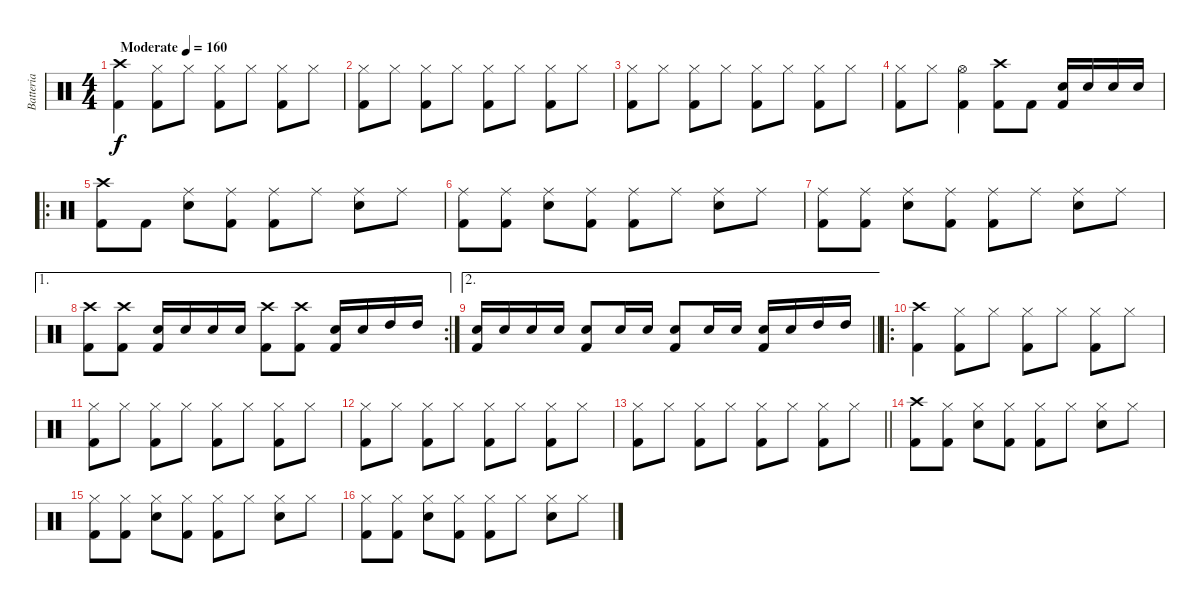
\track ("Batteria" "Batteria") {instrument percussion}
\staff {score}
\articulation defaults
\ts (4 4)
\tempo (160 "Moderate")
\clef neutral
\ks c
("Crash high (hit)" "Kick (hit) 2").4{dy f} ("Hi-Hat (closed)" "Kick (hit) 2").8 "Hi-Hat (closed)".8 ("Hi-Hat (closed)" "Kick (hit) 2").8 "Hi-Hat (closed)".8 ("Hi-Hat (closed)" "Kick (hit) 2").8 "Hi-Hat (closed)".8 |
("Hi-Hat (closed)" "Kick (hit) 2").8 "Hi-Hat (closed)".8 ("Hi-Hat (closed)" "Kick (hit) 2").8 "Hi-Hat (closed)".8 ("Hi-Hat (closed)" "Kick (hit) 2").8 "Hi-Hat (closed)".8 ("Hi-Hat (closed)" "Kick (hit) 2").8 "Hi-Hat (closed)".8 |
("Hi-Hat (closed)" "Kick (hit) 2").8 "Hi-Hat (closed)".8 ("Hi-Hat (closed)" "Kick (hit) 2").8 "Hi-Hat (closed)".8 ("Hi-Hat (closed)" "Kick (hit) 2").8 "Hi-Hat (closed)".8 ("Hi-Hat (closed)" "Kick (hit) 2").8 "Hi-Hat (closed)".8 |
("Hi-Hat (closed)" "Kick (hit) 2").8 "Hi-Hat (closed)".8 ("Hi-Hat (open)" "Kick (hit) 2").4 ("Crash high (hit)" "Kick (hit) 2").8 "Kick (hit) 2".8 ("Electric Snare (hit)" "Kick (hit) 2").16 "Electric Snare (hit)".16 "Electric Snare (hit)".16 "Electric Snare (hit)".16 |
\ro
("Crash high (hit)" "Kick (hit) 2").8 "Kick (hit) 2".8 ("Ride (middle)" "Electric Snare (hit)").8 ("Ride (middle)" "Kick (hit) 2").8 ("Ride (middle)" "Kick (hit) 2").8 "Ride (middle)".8 ("Ride (middle)" "Electric Snare (hit)").8 "Ride (middle)".8 |
("Ride (middle)" "Kick (hit) 2").8 ("Ride (middle)" "Kick (hit) 2").8 ("Ride (middle)" "Electric Snare (hit)").8 ("Ride (middle)" "Kick (hit) 2").8 ("Ride (middle)" "Kick (hit) 2").8 "Ride (middle)".8 ("Ride (middle)" "Electric Snare (hit)").8 "Ride (middle)".8 |
("Ride (middle)" "Kick (hit) 2").8 ("Ride (middle)" "Kick (hit) 2").8 ("Ride (middle)" "Electric Snare (hit)").8 ("Ride (middle)" "Kick (hit) 2").8 ("Ride (middle)" "Kick (hit) 2").8 "Ride (middle)".8 ("Ride (middle)" "Electric Snare (hit)").8 "Ride (middle)".8 |
\ae 1
\rc 2
("Crash high (hit)" "Kick (hit) 2").8 ("Crash high (hit)" "Kick (hit) 2").8 ("Electric Snare (hit)" "Kick (hit) 2").16 "Electric Snare (hit)".16 "Electric Snare (hit)".16 "Electric Snare (hit)".16 ("Crash high (hit)" "Kick (hit) 2").8 ("Crash high (hit)" "Kick (hit) 2").8 ("Electric Snare (hit)" "Kick (hit) 2").16 "Electric Snare (hit)".16 "High Tom (hit)".16 "High Tom (hit)".16 |
\ae 2
\barLineRight lightlight
("Electric Snare (hit)" "Kick (hit) 2").16 "Electric Snare (hit)".16 "Electric Snare (hit)".16 "Electric Snare (hit)".16 ("Electric Snare (hit)" "Kick (hit) 2").8 "Electric Snare (hit)".16 "Electric Snare (hit)".16 ("Electric Snare (hit)" "Kick (hit) 2").8 "Electric Snare (hit)".16 "Electric Snare (hit)".16 ("Electric Snare (hit)" "Kick (hit) 2").16 "Electric Snare (hit)".16 "High Tom (hit)".16 "High Tom (hit)".16 |
\ro
("Crash high (hit)" "Kick (hit) 2").4 ("Hi-Hat (closed)" "Kick (hit) 2").8 "Hi-Hat (closed)".8 ("Hi-Hat (closed)" "Kick (hit) 2").8 "Hi-Hat (closed)".8 ("Hi-Hat (closed)" "Kick (hit) 2").8 "Hi-Hat (closed)".8 |
("Hi-Hat (closed)" "Kick (hit) 2").8 "Hi-Hat (closed)".8 ("Hi-Hat (closed)" "Kick (hit) 2").8 "Hi-Hat (closed)".8 ("Hi-Hat (closed)" "Kick (hit) 2").8 "Hi-Hat (closed)".8 ("Hi-Hat (closed)" "Kick (hit) 2").8 "Hi-Hat (closed)".8 |
("Hi-Hat (closed)" "Kick (hit) 2").8 "Hi-Hat (closed)".8 ("Hi-Hat (closed)" "Kick (hit) 2").8 "Hi-Hat (closed)".8 ("Hi-Hat (closed)" "Kick (hit) 2").8 "Hi-Hat (closed)".8 ("Hi-Hat (closed)" "Kick (hit) 2").8 "Hi-Hat (closed)".8 |
\barLineRight lightlight
("Hi-Hat (closed)" "Kick (hit) 2").8 "Hi-Hat (closed)".8 ("Hi-Hat (closed)" "Kick (hit) 2").8 "Hi-Hat (closed)".8 ("Hi-Hat (closed)" "Kick (hit) 2").8 "Hi-Hat (closed)".8 ("Hi-Hat (closed)" "Kick (hit) 2").8 "Hi-Hat (closed)".8 |
("Crash high (hit)" "Kick (hit) 2").8 ("Hi-Hat (closed)" "Kick (hit) 2").8 ("Hi-Hat (closed)" "Electric Snare (hit)").8 ("Hi-Hat (closed)" "Kick (hit) 2").8 ("Hi-Hat (closed)" "Kick (hit) 2").8 "Hi-Hat (closed)".8 ("Hi-Hat (closed)" "Electric Snare (hit)").8 "Hi-Hat (closed)".8 |
("Hi-Hat (closed)" "Kick (hit) 2").8 ("Hi-Hat (closed)" "Kick (hit) 2").8 ("Hi-Hat (closed)" "Electric Snare (hit)").8 ("Hi-Hat (closed)" "Kick (hit) 2").8 ("Hi-Hat (closed)" "Kick (hit) 2").8 "Hi-Hat (closed)".8 ("Hi-Hat (closed)" "Electric Snare (hit)").8 "Hi-Hat (closed)".8 |
("Hi-Hat (closed)" "Kick (hit) 2").8 ("Hi-Hat (closed)" "Kick (hit) 2").8 ("Hi-Hat (closed)" "Electric Snare (hit)").8 ("Hi-Hat (closed)" "Kick (hit) 2").8 ("Hi-Hat (closed)" "Kick (hit) 2").8 "Hi-Hat (closed)".8 ("Hi-Hat (closed)" "Electric Snare (hit)").8 "Hi-Hat (closed)".8
